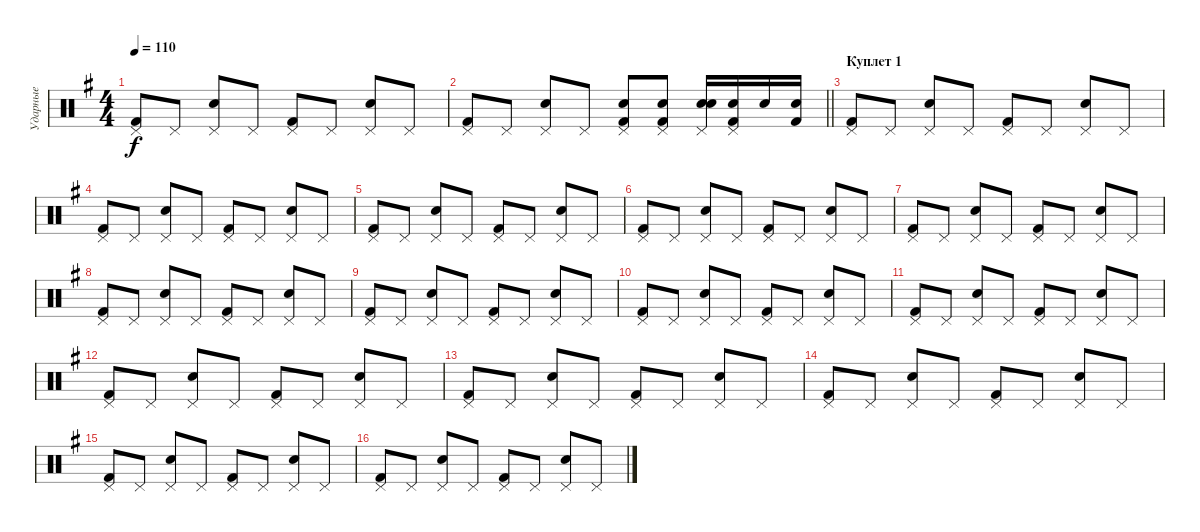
\track ("Ударные" "Ударные") {instrument percussion}
\staff {score}
\articulation defaults
\ts (4 4)
\tempo 110
\clef neutral
\ks eminor
("Kick (hit) 2" "Pedal Hi-Hat (hit)").8{dy f} "Pedal Hi-Hat (hit)".8 ("Snare (hit) 2" "Pedal Hi-Hat (hit)").8 "Pedal Hi-Hat (hit)".8 ("Kick (hit) 2" "Pedal Hi-Hat (hit)").8 "Pedal Hi-Hat (hit)".8 ("Snare (hit) 2" "Pedal Hi-Hat (hit)").8 "Pedal Hi-Hat (hit)".8 |
\barLineRight lightlight
("Kick (hit) 2" "Pedal Hi-Hat (hit)").8 "Pedal Hi-Hat (hit)".8 ("Snare (hit) 2" "Pedal Hi-Hat (hit)").8 "Pedal Hi-Hat (hit)".8 ("Snare (hit) 2" "Kick (hit) 2" "Pedal Hi-Hat (hit)").8 ("Snare (hit) 2" "Kick (hit) 2" "Pedal Hi-Hat (hit)").8 ("Snare (hit) 2" "Snare (hit) 2" "Pedal Hi-Hat (hit)").16 ("Snare (hit) 2" "Kick (hit) 2" "Pedal Hi-Hat (hit)").16 "Snare (hit) 2".16 ("Kick (hit) 2" "Snare (hit) 2").16 |
\section ("" "Куплет 1")
("Kick (hit) 2" "Pedal Hi-Hat (hit)").8 "Pedal Hi-Hat (hit)".8 ("Snare (hit) 2" "Pedal Hi-Hat (hit)").8 "Pedal Hi-Hat (hit)".8 ("Kick (hit) 2" "Pedal Hi-Hat (hit)").8 "Pedal Hi-Hat (hit)".8 ("Snare (hit) 2" "Pedal Hi-Hat (hit)").8 "Pedal Hi-Hat (hit)".8 |
("Kick (hit) 2" "Pedal Hi-Hat (hit)").8 "Pedal Hi-Hat (hit)".8 ("Snare (hit) 2" "Pedal Hi-Hat (hit)").8 "Pedal Hi-Hat (hit)".8 ("Kick (hit) 2" "Pedal Hi-Hat (hit)").8 "Pedal Hi-Hat (hit)".8 ("Snare (hit) 2" "Pedal Hi-Hat (hit)").8 "Pedal Hi-Hat (hit)".8 |
("Kick (hit) 2" "Pedal Hi-Hat (hit)").8 "Pedal Hi-Hat (hit)".8 ("Snare (hit) 2" "Pedal Hi-Hat (hit)").8 "Pedal Hi-Hat (hit)".8 ("Kick (hit) 2" "Pedal Hi-Hat (hit)").8 "Pedal Hi-Hat (hit)".8 ("Snare (hit) 2" "Pedal Hi-Hat (hit)").8 "Pedal Hi-Hat (hit)".8 |
("Kick (hit) 2" "Pedal Hi-Hat (hit)").8 "Pedal Hi-Hat (hit)".8 ("Snare (hit) 2" "Pedal Hi-Hat (hit)").8 "Pedal Hi-Hat (hit)".8 ("Kick (hit) 2" "Pedal Hi-Hat (hit)").8 "Pedal Hi-Hat (hit)".8 ("Snare (hit) 2" "Pedal Hi-Hat (hit)").8 "Pedal Hi-Hat (hit)".8 |
("Kick (hit) 2" "Pedal Hi-Hat (hit)").8 "Pedal Hi-Hat (hit)".8 ("Snare (hit) 2" "Pedal Hi-Hat (hit)").8 "Pedal Hi-Hat (hit)".8 ("Kick (hit) 2" "Pedal Hi-Hat (hit)").8 "Pedal Hi-Hat (hit)".8 ("Snare (hit) 2" "Pedal Hi-Hat (hit)").8 "Pedal Hi-Hat (hit)".8 |
("Kick (hit) 2" "Pedal Hi-Hat (hit)").8 "Pedal Hi-Hat (hit)".8 ("Snare (hit) 2" "Pedal Hi-Hat (hit)").8 "Pedal Hi-Hat (hit)".8 ("Kick (hit) 2" "Pedal Hi-Hat (hit)").8 "Pedal Hi-Hat (hit)".8 ("Snare (hit) 2" "Pedal Hi-Hat (hit)").8 "Pedal Hi-Hat (hit)".8 |
("Kick (hit) 2" "Pedal Hi-Hat (hit)").8 "Pedal Hi-Hat (hit)".8 ("Snare (hit) 2" "Pedal Hi-Hat (hit)").8 "Pedal Hi-Hat (hit)".8 ("Kick (hit) 2" "Pedal Hi-Hat (hit)").8 "Pedal Hi-Hat (hit)".8 ("Snare (hit) 2" "Pedal Hi-Hat (hit)").8 "Pedal Hi-Hat (hit)".8 |
("Kick (hit) 2" "Pedal Hi-Hat (hit)").8 "Pedal Hi-Hat (hit)".8 ("Snare (hit) 2" "Pedal Hi-Hat (hit)").8 "Pedal Hi-Hat (hit)".8 ("Kick (hit) 2" "Pedal Hi-Hat (hit)").8 "Pedal Hi-Hat (hit)".8 ("Snare (hit) 2" "Pedal Hi-Hat (hit)").8 "Pedal Hi-Hat (hit)".8 |
("Kick (hit) 2" "Pedal Hi-Hat (hit)").8 "Pedal Hi-Hat (hit)".8 ("Snare (hit) 2" "Pedal Hi-Hat (hit)").8 "Pedal Hi-Hat (hit)".8 ("Kick (hit) 2" "Pedal Hi-Hat (hit)").8 "Pedal Hi-Hat (hit)".8 ("Snare (hit) 2" "Pedal Hi-Hat (hit)").8 "Pedal Hi-Hat (hit)".8 |
("Kick (hit) 2" "Pedal Hi-Hat (hit)").8 "Pedal Hi-Hat (hit)".8 ("Snare (hit) 2" "Pedal Hi-Hat (hit)").8 "Pedal Hi-Hat (hit)".8 ("Kick (hit) 2" "Pedal Hi-Hat (hit)").8 "Pedal Hi-Hat (hit)".8 ("Snare (hit) 2" "Pedal Hi-Hat (hit)").8 "Pedal Hi-Hat (hit)".8 |
("Kick (hit) 2" "Pedal Hi-Hat (hit)").8 "Pedal Hi-Hat (hit)".8 ("Snare (hit) 2" "Pedal Hi-Hat (hit)").8 "Pedal Hi-Hat (hit)".8 ("Kick (hit) 2" "Pedal Hi-Hat (hit)").8 "Pedal Hi-Hat (hit)".8 ("Snare (hit) 2" "Pedal Hi-Hat (hit)").8 "Pedal Hi-Hat (hit)".8 |
("Kick (hit) 2" "Pedal Hi-Hat (hit)").8 "Pedal Hi-Hat (hit)".8 ("Snare (hit) 2" "Pedal Hi-Hat (hit)").8 "Pedal Hi-Hat (hit)".8 ("Kick (hit) 2" "Pedal Hi-Hat (hit)").8 "Pedal Hi-Hat (hit)".8 ("Snare (hit) 2" "Pedal Hi-Hat (hit)").8 "Pedal Hi-Hat (hit)".8 |
("Kick (hit) 2" "Pedal Hi-Hat (hit)").8 "Pedal Hi-Hat (hit)".8 ("Snare (hit) 2" "Pedal Hi-Hat (hit)").8 "Pedal Hi-Hat (hit)".8 ("Kick (hit) 2" "Pedal Hi-Hat (hit)").8 "Pedal Hi-Hat (hit)".8 ("Snare (hit) 2" "Pedal Hi-Hat (hit)").8 "Pedal Hi-Hat (hit)".8 |
("Kick (hit) 2" "Pedal Hi-Hat (hit)").8 "Pedal Hi-Hat (hit)".8 ("Snare (hit) 2" "Pedal Hi-Hat (hit)").8 "Pedal Hi-Hat (hit)".8 ("Kick (hit) 2" "Pedal Hi-Hat (hit)").8 "Pedal Hi-Hat (hit)".8 ("Snare (hit) 2" "Pedal Hi-Hat (hit)").8 "Pedal Hi-Hat (hit)".8
